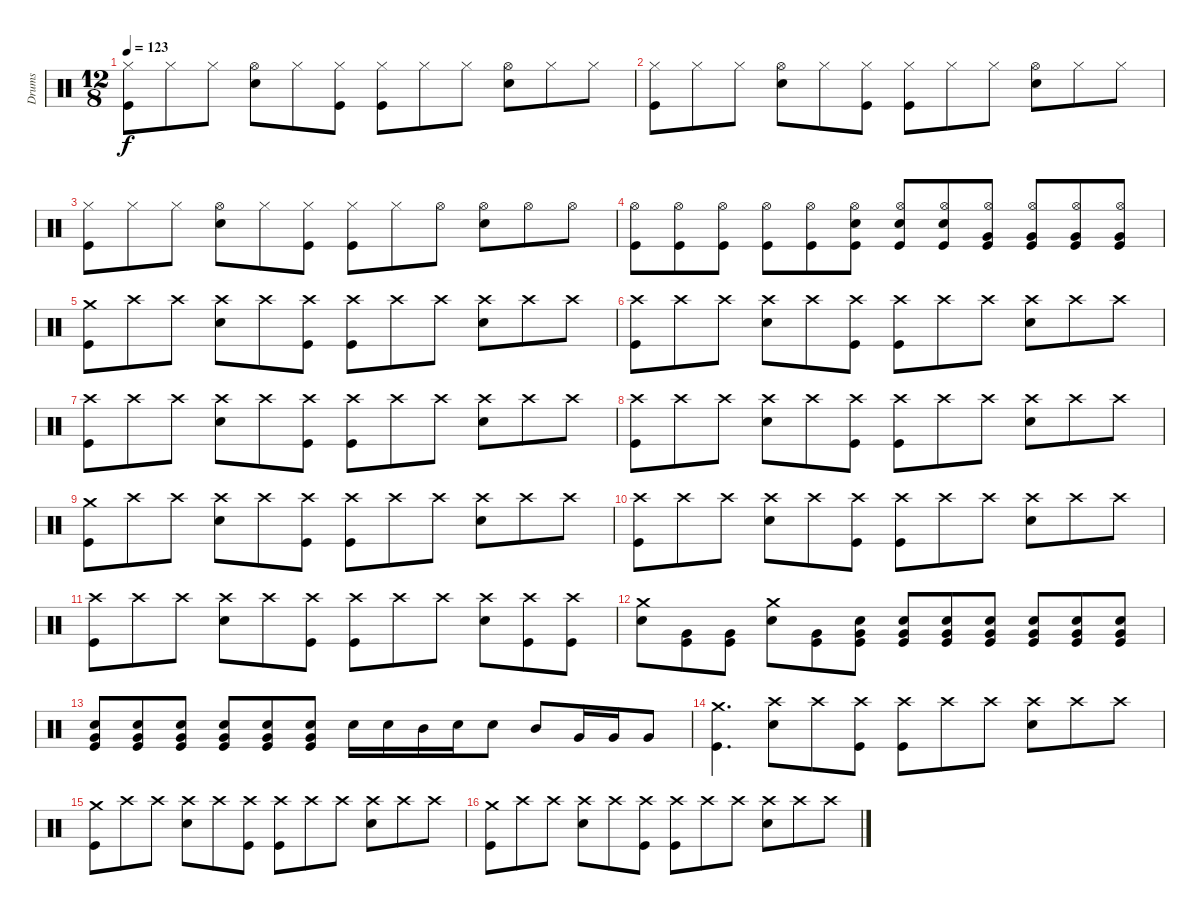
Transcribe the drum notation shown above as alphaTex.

\track ("Drums" "Drums") {instrument percussion}
\staff {score}
\articulation defaults
\ts (12 8)
\tempo 123
\clef neutral
\ks c
("Hi-Hat (closed)" "Kick (hit)").8{dy f} "Hi-Hat (closed)".8 "Hi-Hat (closed)".8 ("Hi-Hat (open)" "Snare (hit) 2").8 "Hi-Hat (closed)".8 ("Hi-Hat (closed)" "Kick (hit)").8 ("Hi-Hat (closed)" "Kick (hit)").8 "Hi-Hat (closed)".8 "Hi-Hat (closed)".8 ("Hi-Hat (open)" "Snare (hit) 2").8 "Hi-Hat (closed)".8 "Hi-Hat (closed)".8 |
("Hi-Hat (closed)" "Kick (hit)").8 "Hi-Hat (closed)".8 "Hi-Hat (closed)".8 ("Hi-Hat (open)" "Snare (hit) 2").8 "Hi-Hat (closed)".8 ("Hi-Hat (closed)" "Kick (hit)").8 ("Hi-Hat (closed)" "Kick (hit)").8 "Hi-Hat (closed)".8 "Hi-Hat (closed)".8 ("Hi-Hat (open)" "Snare (hit) 2").8 "Hi-Hat (closed)".8 "Hi-Hat (closed)".8 |
("Hi-Hat (closed)" "Kick (hit)").8 "Hi-Hat (closed)".8 "Hi-Hat (closed)".8 ("Hi-Hat (open)" "Snare (hit) 2").8 "Hi-Hat (closed)".8 ("Hi-Hat (closed)" "Kick (hit)").8 ("Hi-Hat (closed)" "Kick (hit)").8 "Hi-Hat (closed)".8 "Hi-Hat (open)".8 ("Hi-Hat (open)" "Snare (hit) 2").8 "Hi-Hat (open)".8 "Hi-Hat (open)".8 |
("Hi-Hat (open)" "Kick (hit)").8 ("Hi-Hat (open)" "Kick (hit)").8 ("Hi-Hat (open)" "Kick (hit)").8 ("Hi-Hat (open)" "Kick (hit)").8 ("Hi-Hat (open)" "Kick (hit)").8 ("Hi-Hat (open)" "Snare (hit) 2" "Kick (hit)").8 ("Hi-Hat (open)" "Snare (hit) 2" "Kick (hit)").8 ("Hi-Hat (open)" "Snare (hit) 2" "Kick (hit)").8 ("Hi-Hat (open)" "Very Low Tom (hit)" "Kick (hit)").8 ("Hi-Hat (open)" "Very Low Tom (hit)" "Kick (hit)").8 ("Hi-Hat (open)" "Very Low Tom (hit)" "Kick (hit)").8 ("Hi-Hat (open)" "Very Low Tom (hit)" "Kick (hit)").8 |
("Crash medium (hit)" "Kick (hit)").8 "Crash high (hit)".8 "Crash high (hit)".8 ("Crash high (hit)" "Snare (hit) 2").8 "Crash high (hit)".8 ("Crash high (hit)" "Kick (hit)").8 ("Crash high (hit)" "Kick (hit)").8 "Crash high (hit)".8 "Crash high (hit)".8 ("Crash high (hit)" "Snare (hit) 2").8 "Crash high (hit)".8 "Crash high (hit)".8 |
("Crash high (hit)" "Kick (hit)").8 "Crash high (hit)".8 "Crash high (hit)".8 ("Crash high (hit)" "Snare (hit) 2").8 "Crash high (hit)".8 ("Crash high (hit)" "Kick (hit)").8 ("Crash high (hit)" "Kick (hit)").8 "Crash high (hit)".8 "Crash high (hit)".8 ("Crash high (hit)" "Snare (hit) 2").8 "Crash high (hit)".8 "Crash high (hit)".8 |
("Crash high (hit)" "Kick (hit)").8 "Crash high (hit)".8 "Crash high (hit)".8 ("Crash high (hit)" "Snare (hit) 2").8 "Crash high (hit)".8 ("Crash high (hit)" "Kick (hit)").8 ("Crash high (hit)" "Kick (hit)").8 "Crash high (hit)".8 "Crash high (hit)".8 ("Crash high (hit)" "Snare (hit) 2").8 "Crash high (hit)".8 "Crash high (hit)".8 |
("Crash high (hit)" "Kick (hit)").8 "Crash high (hit)".8 "Crash high (hit)".8 ("Crash high (hit)" "Snare (hit) 2").8 "Crash high (hit)".8 ("Crash high (hit)" "Kick (hit)").8 ("Crash high (hit)" "Kick (hit)").8 "Crash high (hit)".8 "Crash high (hit)".8 ("Crash high (hit)" "Snare (hit) 2").8 "Crash high (hit)".8 "Crash high (hit)".8 |
("Crash medium (hit)" "Kick (hit)").8 "Crash high (hit)".8 "Crash high (hit)".8 ("Crash high (hit)" "Snare (hit) 2").8 "Crash high (hit)".8 ("Crash high (hit)" "Kick (hit)").8 ("Crash high (hit)" "Kick (hit)").8 "Crash high (hit)".8 "Crash high (hit)".8 ("Crash high (hit)" "Snare (hit) 2").8 "Crash high (hit)".8 "Crash high (hit)".8 |
("Crash high (hit)" "Kick (hit)").8 "Crash high (hit)".8 "Crash high (hit)".8 ("Crash high (hit)" "Snare (hit) 2").8 "Crash high (hit)".8 ("Crash high (hit)" "Kick (hit)").8 ("Crash high (hit)" "Kick (hit)").8 "Crash high (hit)".8 "Crash high (hit)".8 ("Crash high (hit)" "Snare (hit) 2").8 "Crash high (hit)".8 "Crash high (hit)".8 |
("Crash high (hit)" "Kick (hit)").8 "Crash high (hit)".8 "Crash high (hit)".8 ("Crash high (hit)" "Snare (hit) 2").8 "Crash high (hit)".8 ("Crash high (hit)" "Kick (hit)").8 ("Crash high (hit)" "Kick (hit)").8 "Crash high (hit)".8 "Crash high (hit)".8 ("Crash high (hit)" "Snare (hit) 2").8 ("Crash high (hit)" "Kick (hit)").8 ("Crash high (hit)" "Kick (hit)").8 |
("Crash medium (hit)" "Snare (hit) 2").8 ("Very Low Tom (hit)" "Kick (hit)").8 ("Very Low Tom (hit)" "Kick (hit)").8 ("Crash medium (hit)" "Snare (hit) 2").8 ("Very Low Tom (hit)" "Kick (hit)").8 ("Very Low Tom (hit)" "Snare (hit) 2" "Kick (hit)").8 ("Very Low Tom (hit)" "Snare (hit) 2" "Kick (hit)").8 ("Very Low Tom (hit)" "Snare (hit) 2" "Kick (hit)").8 ("Very Low Tom (hit)" "Snare (hit) 2" "Kick (hit)").8 ("Very Low Tom (hit)" "Snare (hit) 2" "Kick (hit)").8 ("Very Low Tom (hit)" "Snare (hit) 2" "Kick (hit)").8 ("Very Low Tom (hit)" "Snare (hit) 2" "Kick (hit)").8 |
("Very Low Tom (hit)" "Snare (hit) 2" "Kick (hit)").8 ("Very Low Tom (hit)" "Snare (hit) 2" "Kick (hit)").8 ("Very Low Tom (hit)" "Snare (hit) 2" "Kick (hit)").8 ("Very Low Tom (hit)" "Snare (hit) 2" "Kick (hit)").8 ("Very Low Tom (hit)" "Snare (hit) 2" "Kick (hit)").8 ("Very Low Tom (hit)" "Snare (hit) 2" "Kick (hit)").8 "Snare (hit) 2".16 "Snare (hit) 2".16 "Mid Tom (hit)".16 "Snare (hit) 2".16 "Snare (hit) 2".8 "Mid Tom (hit)".8 "Very Low Tom (hit)".16 "Very Low Tom (hit)".16 "Very Low Tom (hit)".8 |
("Crash medium (hit)" "Kick (hit)").4{d} ("Crash high (hit)" "Snare (hit) 2").8 "Crash high (hit)".8 ("Crash high (hit)" "Kick (hit)").8 ("Crash high (hit)" "Kick (hit)").8 "Crash high (hit)".8 "Crash high (hit)".8 ("Crash high (hit)" "Snare (hit) 2").8 "Crash high (hit)".8 "Crash high (hit)".8 |
("Crash medium (hit)" "Kick (hit)").8 "Crash high (hit)".8 "Crash high (hit)".8 ("Crash high (hit)" "Snare (hit) 2").8 "Crash high (hit)".8 ("Crash high (hit)" "Kick (hit)").8 ("Crash high (hit)" "Kick (hit)").8 "Crash high (hit)".8 "Crash high (hit)".8 ("Crash high (hit)" "Snare (hit) 2").8 "Crash high (hit)".8 "Crash high (hit)".8 |
("Crash medium (hit)" "Kick (hit)").8 "Crash high (hit)".8 "Crash high (hit)".8 ("Crash high (hit)" "Snare (hit) 2").8 "Crash high (hit)".8 ("Crash high (hit)" "Kick (hit)").8 ("Crash high (hit)" "Kick (hit)").8 "Crash high (hit)".8 "Crash high (hit)".8 ("Crash high (hit)" "Snare (hit) 2").8 "Crash high (hit)".8 "Crash high (hit)".8
